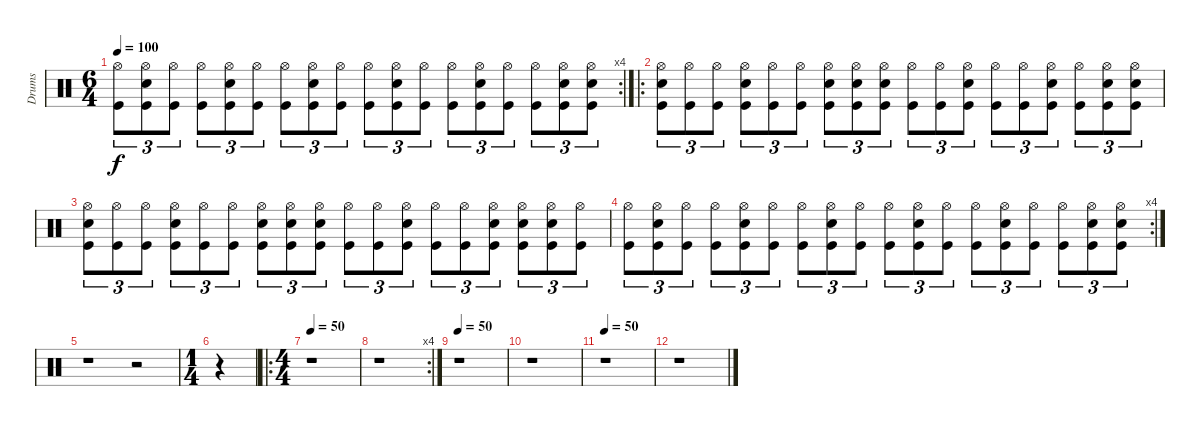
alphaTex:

\track ("Drums" "Drums") {instrument percussion}
\staff {score}
\articulation defaults
\rc 4
\ts (6 4)
\tempo 100
\clef neutral
\ks c
("Hi-Hat (open)" "Kick (hit)").8{tu (3 2) dy f} ("Electric Snare (hit)" "Hi-Hat (open)" "Kick (hit)").8{tu (3 2)} ("Hi-Hat (open)" "Kick (hit)").8{tu (3 2)} ("Hi-Hat (open)" "Kick (hit)").8{tu (3 2)} ("Electric Snare (hit)" "Hi-Hat (open)" "Kick (hit)").8{tu (3 2)} ("Hi-Hat (open)" "Kick (hit)").8{tu (3 2)} ("Hi-Hat (open)" "Kick (hit)").8{tu (3 2)} ("Electric Snare (hit)" "Hi-Hat (open)" "Kick (hit)").8{tu (3 2)} ("Hi-Hat (open)" "Kick (hit)").8{tu (3 2)} ("Hi-Hat (open)" "Kick (hit)").8{tu (3 2)} ("Electric Snare (hit)" "Hi-Hat (open)" "Kick (hit)").8{tu (3 2)} ("Hi-Hat (open)" "Kick (hit)").8{tu (3 2)} ("Hi-Hat (open)" "Kick (hit)").8{tu (3 2)} ("Electric Snare (hit)" "Hi-Hat (open)" "Kick (hit)").8{tu (3 2)} ("Hi-Hat (open)" "Kick (hit)").8{tu (3 2)} ("Hi-Hat (open)" "Kick (hit)").8{tu (3 2)} ("Electric Snare (hit)" "Hi-Hat (open)" "Kick (hit)").8{tu (3 2)} ("Electric Snare (hit)" "Hi-Hat (open)" "Kick (hit)").8{tu (3 2)} |
\ro
("Electric Snare (hit)" "Hi-Hat (open)" "Kick (hit)").8{tu (3 2)} ("Hi-Hat (open)" "Kick (hit)").8{tu (3 2)} ("Hi-Hat (open)" "Kick (hit)").8{tu (3 2)} ("Electric Snare (hit)" "Hi-Hat (open)" "Kick (hit)").8{tu (3 2)} ("Hi-Hat (open)" "Kick (hit)").8{tu (3 2)} ("Hi-Hat (open)" "Kick (hit)").8{tu (3 2)} ("Electric Snare (hit)" "Hi-Hat (open)" "Kick (hit)").8{tu (3 2)} ("Electric Snare (hit)" "Hi-Hat (open)" "Kick (hit)").8{tu (3 2)} ("Electric Snare (hit)" "Hi-Hat (open)" "Kick (hit)").8{tu (3 2)} ("Hi-Hat (open)" "Kick (hit)").8{tu (3 2)} ("Hi-Hat (open)" "Kick (hit)").8{tu (3 2)} ("Electric Snare (hit)" "Hi-Hat (open)" "Kick (hit)").8{tu (3 2)} ("Hi-Hat (open)" "Kick (hit)").8{tu (3 2)} ("Hi-Hat (open)" "Kick (hit)").8{tu (3 2)} ("Electric Snare (hit)" "Hi-Hat (open)" "Kick (hit)").8{tu (3 2)} ("Hi-Hat (open)" "Kick (hit)").8{tu (3 2)} ("Electric Snare (hit)" "Hi-Hat (open)" "Kick (hit)").8{tu (3 2)} ("Electric Snare (hit)" "Hi-Hat (open)" "Kick (hit)").8{tu (3 2)} |
("Electric Snare (hit)" "Hi-Hat (open)" "Kick (hit)").8{tu (3 2)} ("Hi-Hat (open)" "Kick (hit)").8{tu (3 2)} ("Hi-Hat (open)" "Kick (hit)").8{tu (3 2)} ("Electric Snare (hit)" "Hi-Hat (open)" "Kick (hit)").8{tu (3 2)} ("Hi-Hat (open)" "Kick (hit)").8{tu (3 2)} ("Hi-Hat (open)" "Kick (hit)").8{tu (3 2)} ("Electric Snare (hit)" "Hi-Hat (open)" "Kick (hit)").8{tu (3 2)} ("Electric Snare (hit)" "Hi-Hat (open)" "Kick (hit)").8{tu (3 2)} ("Electric Snare (hit)" "Hi-Hat (open)" "Kick (hit)").8{tu (3 2)} ("Hi-Hat (open)" "Kick (hit)").8{tu (3 2)} ("Hi-Hat (open)" "Kick (hit)").8{tu (3 2)} ("Electric Snare (hit)" "Hi-Hat (open)" "Kick (hit)").8{tu (3 2)} ("Hi-Hat (open)" "Kick (hit)").8{tu (3 2)} ("Hi-Hat (open)" "Kick (hit)").8{tu (3 2)} ("Electric Snare (hit)" "Hi-Hat (open)" "Kick (hit)").8{tu (3 2)} ("Electric Snare (hit)" "Hi-Hat (open)" "Kick (hit)").8{tu (3 2)} ("Electric Snare (hit)" "Hi-Hat (open)" "Kick (hit)").8{tu (3 2)} ("Hi-Hat (open)" "Kick (hit)").8{tu (3 2)} |
\rc 4
("Hi-Hat (open)" "Kick (hit)").8{tu (3 2)} ("Electric Snare (hit)" "Hi-Hat (open)" "Kick (hit)").8{tu (3 2)} ("Hi-Hat (open)" "Kick (hit)").8{tu (3 2)} ("Hi-Hat (open)" "Kick (hit)").8{tu (3 2)} ("Electric Snare (hit)" "Hi-Hat (open)" "Kick (hit)").8{tu (3 2)} ("Hi-Hat (open)" "Kick (hit)").8{tu (3 2)} ("Hi-Hat (open)" "Kick (hit)").8{tu (3 2)} ("Electric Snare (hit)" "Hi-Hat (open)" "Kick (hit)").8{tu (3 2)} ("Hi-Hat (open)" "Kick (hit)").8{tu (3 2)} ("Hi-Hat (open)" "Kick (hit)").8{tu (3 2)} ("Electric Snare (hit)" "Hi-Hat (open)" "Kick (hit)").8{tu (3 2)} ("Hi-Hat (open)" "Kick (hit)").8{tu (3 2)} ("Hi-Hat (open)" "Kick (hit)").8{tu (3 2)} ("Electric Snare (hit)" "Hi-Hat (open)" "Kick (hit)").8{tu (3 2)} ("Hi-Hat (open)" "Kick (hit)").8{tu (3 2)} ("Hi-Hat (open)" "Kick (hit)").8{tu (3 2)} ("Electric Snare (hit)" "Hi-Hat (open)" "Kick (hit)").8{tu (3 2)} ("Electric Snare (hit)" "Hi-Hat (open)" "Kick (hit)").8{tu (3 2)} |
r.1 r.2 |
\ts (1 4)
r.4 |
\ro
\ts (4 4)
\tempo 50
r.1 |
\rc 4
r.1 |
\tempo 50
r.1 |
r.1 |
\tempo 50
r.1 |
r.1
